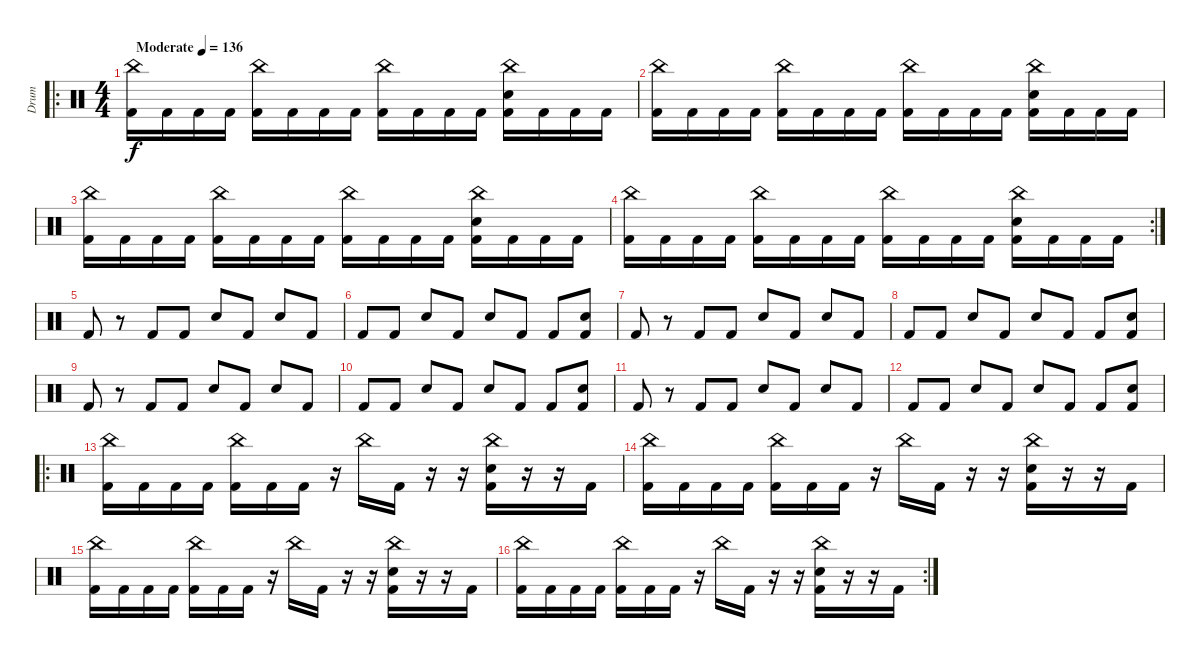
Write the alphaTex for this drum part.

\track ("Drum" "Drum") {instrument percussion}
\staff {score}
\articulation defaults
\ro
\ts (4 4)
\tempo (136 "Moderate")
\clef neutral
\ks c
("China (hit)" "Kick (hit) 2").16{dy f} "Kick (hit) 2".16 "Kick (hit) 2".16 "Kick (hit) 2".16 ("China (hit)" "Kick (hit) 2").16 "Kick (hit) 2".16 "Kick (hit) 2".16 "Kick (hit) 2".16 ("China (hit)" "Kick (hit) 2").16 "Kick (hit) 2".16 "Kick (hit) 2".16 "Kick (hit) 2".16 ("China (hit)" "Electric Snare (hit)" "Kick (hit) 2").16 "Kick (hit) 2".16 "Kick (hit) 2".16 "Kick (hit) 2".16 |
("China (hit)" "Kick (hit) 2").16 "Kick (hit) 2".16 "Kick (hit) 2".16 "Kick (hit) 2".16 ("China (hit)" "Kick (hit) 2").16 "Kick (hit) 2".16 "Kick (hit) 2".16 "Kick (hit) 2".16 ("China (hit)" "Kick (hit) 2").16 "Kick (hit) 2".16 "Kick (hit) 2".16 "Kick (hit) 2".16 ("China (hit)" "Electric Snare (hit)" "Kick (hit) 2").16 "Kick (hit) 2".16 "Kick (hit) 2".16 "Kick (hit) 2".16 |
("China (hit)" "Kick (hit) 2").16 "Kick (hit) 2".16 "Kick (hit) 2".16 "Kick (hit) 2".16 ("China (hit)" "Kick (hit) 2").16 "Kick (hit) 2".16 "Kick (hit) 2".16 "Kick (hit) 2".16 ("China (hit)" "Kick (hit) 2").16 "Kick (hit) 2".16 "Kick (hit) 2".16 "Kick (hit) 2".16 ("China (hit)" "Electric Snare (hit)" "Kick (hit) 2").16 "Kick (hit) 2".16 "Kick (hit) 2".16 "Kick (hit) 2".16 |
\rc 2
("China (hit)" "Kick (hit) 2").16 "Kick (hit) 2".16 "Kick (hit) 2".16 "Kick (hit) 2".16 ("China (hit)" "Kick (hit) 2").16 "Kick (hit) 2".16 "Kick (hit) 2".16 "Kick (hit) 2".16 ("China (hit)" "Kick (hit) 2").16 "Kick (hit) 2".16 "Kick (hit) 2".16 "Kick (hit) 2".16 ("China (hit)" "Electric Snare (hit)" "Kick (hit) 2").16 "Kick (hit) 2".16 "Kick (hit) 2".16 "Kick (hit) 2".16 |
"Kick (hit) 2".8 r.8 "Kick (hit) 2".8 "Kick (hit) 2".8 "Electric Snare (hit)".8 "Kick (hit) 2".8 "Electric Snare (hit)".8 "Kick (hit) 2".8 |
"Kick (hit) 2".8 "Kick (hit) 2".8 "Electric Snare (hit)".8 "Kick (hit) 2".8 "Electric Snare (hit)".8 "Kick (hit) 2".8 "Kick (hit) 2".8 ("Electric Snare (hit)" "Kick (hit) 2").8 |
"Kick (hit) 2".8 r.8 "Kick (hit) 2".8 "Kick (hit) 2".8 "Electric Snare (hit)".8 "Kick (hit) 2".8 "Electric Snare (hit)".8 "Kick (hit) 2".8 |
"Kick (hit) 2".8 "Kick (hit) 2".8 "Electric Snare (hit)".8 "Kick (hit) 2".8 "Electric Snare (hit)".8 "Kick (hit) 2".8 "Kick (hit) 2".8 ("Electric Snare (hit)" "Kick (hit) 2").8 |
"Kick (hit) 2".8 r.8 "Kick (hit) 2".8 "Kick (hit) 2".8 "Electric Snare (hit)".8 "Kick (hit) 2".8 "Electric Snare (hit)".8 "Kick (hit) 2".8 |
"Kick (hit) 2".8 "Kick (hit) 2".8 "Electric Snare (hit)".8 "Kick (hit) 2".8 "Electric Snare (hit)".8 "Kick (hit) 2".8 "Kick (hit) 2".8 ("Electric Snare (hit)" "Kick (hit) 2").8 |
"Kick (hit) 2".8 r.8 "Kick (hit) 2".8 "Kick (hit) 2".8 "Electric Snare (hit)".8 "Kick (hit) 2".8 "Electric Snare (hit)".8 "Kick (hit) 2".8 |
"Kick (hit) 2".8 "Kick (hit) 2".8 "Electric Snare (hit)".8 "Kick (hit) 2".8 "Electric Snare (hit)".8 "Kick (hit) 2".8 "Kick (hit) 2".8 ("Electric Snare (hit)" "Kick (hit) 2").8 |
\ro
("China (hit)" "Kick (hit) 2").16 "Kick (hit) 2".16 "Kick (hit) 2".16 "Kick (hit) 2".16 ("China (hit)" "Kick (hit) 2").16 "Kick (hit) 2".16 "Kick (hit) 2".16 r.16 "China (hit)".16 "Kick (hit) 2".16 r.16 r.16 ("China (hit)" "Electric Snare (hit)" "Kick (hit) 2").16 r.16 r.16 "Kick (hit) 2".16 |
("China (hit)" "Kick (hit) 2").16 "Kick (hit) 2".16 "Kick (hit) 2".16 "Kick (hit) 2".16 ("China (hit)" "Kick (hit) 2").16 "Kick (hit) 2".16 "Kick (hit) 2".16 r.16 "China (hit)".16 "Kick (hit) 2".16 r.16 r.16 ("China (hit)" "Electric Snare (hit)" "Kick (hit) 2").16 r.16 r.16 "Kick (hit) 2".16 |
("China (hit)" "Kick (hit) 2").16 "Kick (hit) 2".16 "Kick (hit) 2".16 "Kick (hit) 2".16 ("China (hit)" "Kick (hit) 2").16 "Kick (hit) 2".16 "Kick (hit) 2".16 r.16 "China (hit)".16 "Kick (hit) 2".16 r.16 r.16 ("China (hit)" "Electric Snare (hit)" "Kick (hit) 2").16 r.16 r.16 "Kick (hit) 2".16 |
\rc 2
("China (hit)" "Kick (hit) 2").16 "Kick (hit) 2".16 "Kick (hit) 2".16 "Kick (hit) 2".16 ("China (hit)" "Kick (hit) 2").16 "Kick (hit) 2".16 "Kick (hit) 2".16 r.16 "China (hit)".16 "Kick (hit) 2".16 r.16 r.16 ("China (hit)" "Electric Snare (hit)" "Kick (hit) 2").16 r.16 r.16 "Kick (hit) 2".16
